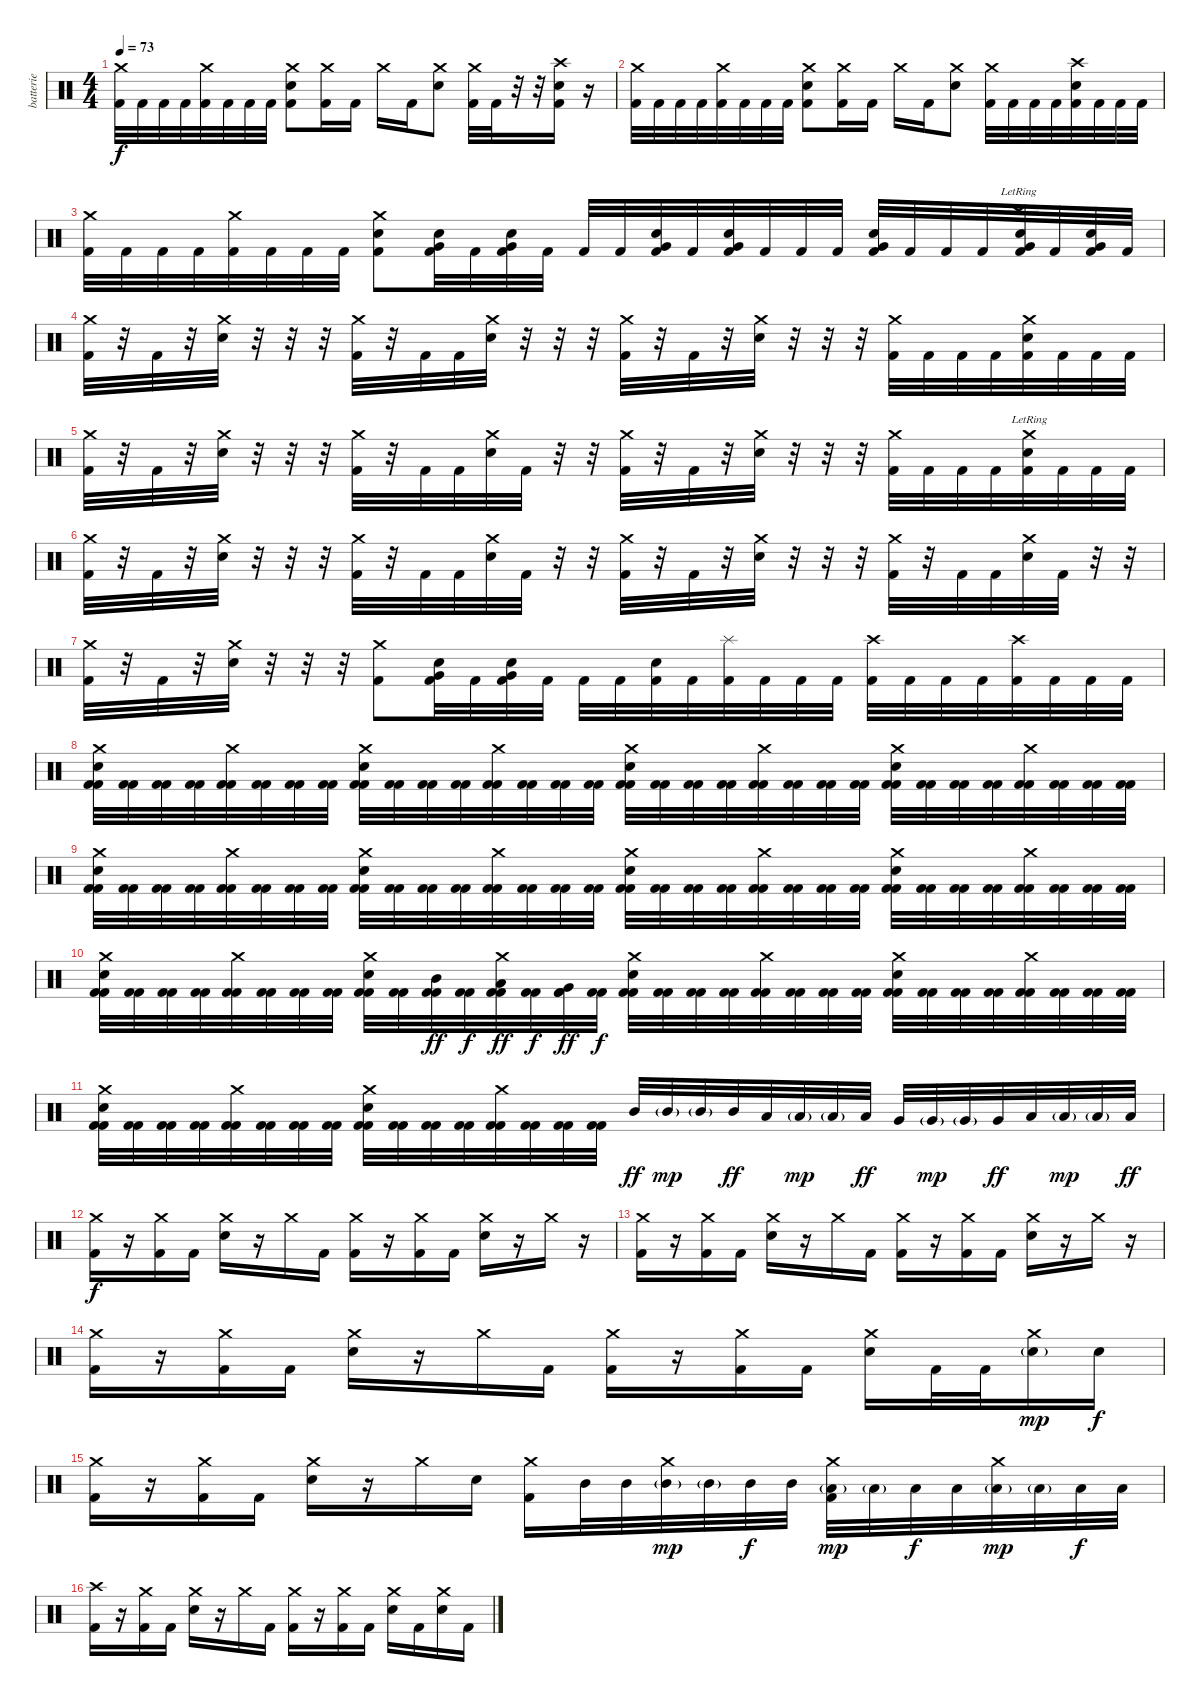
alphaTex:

\track ("batterie" "batterie") {instrument percussion}
\staff {score}
\articulation defaults
\ts (4 4)
\tempo 73
\clef neutral
\ks c
("Crash medium (hit)" "Kick (hit) 2").32{dy f} "Kick (hit) 2".32 "Kick (hit) 2".32 "Kick (hit) 2".32 ("Crash medium (hit)" "Kick (hit) 2").32 "Kick (hit) 2".32 "Kick (hit) 2".32 "Kick (hit) 2".32 ("Crash medium (hit)" "Electric Snare (hit)" "Kick (hit) 2").8 ("Crash medium (hit)" "Kick (hit) 2").16 "Kick (hit) 2".16 "Crash medium (hit)".16 "Kick (hit) 2".16 ("Crash medium (hit)" "Electric Snare (hit)").8 ("Crash medium (hit)" "Kick (hit) 2").32 "Kick (hit) 2".32 r.32 r.32 ("Crash high (hit)" "Electric Snare (hit)" "Kick (hit) 2").16 r.16 |
("Crash medium (hit)" "Kick (hit) 2").32 "Kick (hit) 2".32 "Kick (hit) 2".32 "Kick (hit) 2".32 ("Crash medium (hit)" "Kick (hit) 2").32 "Kick (hit) 2".32 "Kick (hit) 2".32 "Kick (hit) 2".32 ("Crash medium (hit)" "Electric Snare (hit)" "Kick (hit) 2").8 ("Crash medium (hit)" "Kick (hit) 2").16 "Kick (hit) 2".16 "Crash medium (hit)".16 "Kick (hit) 2".16 ("Crash medium (hit)" "Electric Snare (hit)").8 ("Crash medium (hit)" "Kick (hit) 2").32 "Kick (hit) 2".32 "Kick (hit) 2".32 "Kick (hit) 2".32 ("Crash high (hit)" "Electric Snare (hit)" "Kick (hit) 2").32 "Kick (hit) 2".32 "Kick (hit) 2".32 "Kick (hit) 2".32 |
("Crash medium (hit)" "Kick (hit) 2").32 "Kick (hit) 2".32 "Kick (hit) 2".32 "Kick (hit) 2".32 ("Crash medium (hit)" "Kick (hit) 2").32 "Kick (hit) 2".32 "Kick (hit) 2".32 "Kick (hit) 2".32 ("Crash medium (hit)" "Electric Snare (hit)" "Kick (hit) 2").8 ("Very Low Tom (hit)" "Electric Snare (hit)" "Kick (hit) 2").32 "Kick (hit) 2".32 ("Very Low Tom (hit)" "Electric Snare (hit)" "Kick (hit) 2").32 "Kick (hit) 2".32 "Kick (hit) 2".32 "Kick (hit) 2".32 ("Very Low Tom (hit)" "Electric Snare (hit)" "Kick (hit) 2").32 "Kick (hit) 2".32 ("Very Low Tom (hit)" "Electric Snare (hit)" "Kick (hit) 2").32 "Kick (hit) 2".32 "Kick (hit) 2".32 "Kick (hit) 2".32 ("Very Low Tom (hit)" "Electric Snare (hit)" "Kick (hit) 2").32 "Kick (hit) 2".32 "Kick (hit) 2".32 "Kick (hit) 2".32 ("Crash high (hit)"{lr} "Very Low Tom (hit)" "Electric Snare (hit)" "Kick (hit) 2").32 "Kick (hit) 2".32 ("Very Low Tom (hit)" "Electric Snare (hit)" "Kick (hit) 2").32 "Kick (hit) 2".32 |
("Crash medium (hit)" "Kick (hit) 2").32 r.32 "Kick (hit) 2".32 r.32 ("Crash medium (hit)" "Electric Snare (hit)").32 r.32 r.32 r.32 ("Crash medium (hit)" "Kick (hit) 2").32 r.32 "Kick (hit) 2".32 "Kick (hit) 2".32 ("Crash medium (hit)" "Electric Snare (hit)").32 r.32 r.32 r.32 ("Crash medium (hit)" "Kick (hit) 2").32 r.32 "Kick (hit) 2".32 r.32 ("Crash medium (hit)" "Electric Snare (hit)").32 r.32 r.32 r.32 ("Crash medium (hit)" "Kick (hit) 2").32 "Kick (hit) 2".32 "Kick (hit) 2".32 "Kick (hit) 2".32 ("Crash medium (hit)" "Electric Snare (hit)" "Kick (hit) 2").32 "Kick (hit) 2".32 "Kick (hit) 2".32 "Kick (hit) 2".32 |
("Crash medium (hit)" "Kick (hit) 2").32 r.32 "Kick (hit) 2".32 r.32 ("Crash medium (hit)" "Electric Snare (hit)").32 r.32 r.32 r.32 ("Crash medium (hit)" "Kick (hit) 2").32 r.32 "Kick (hit) 2".32 "Kick (hit) 2".32 ("Crash medium (hit)" "Electric Snare (hit)").32 "Kick (hit) 2".32 r.32 r.32 ("Crash medium (hit)" "Kick (hit) 2").32 r.32 "Kick (hit) 2".32 r.32 ("Crash medium (hit)" "Electric Snare (hit)").32 r.32 r.32 r.32 ("Crash medium (hit)" "Kick (hit) 2").32 "Kick (hit) 2".32 "Kick (hit) 2".32 "Kick (hit) 2".32 ("Crash medium (hit)"{lr} "Electric Snare (hit)" "Kick (hit) 2").32 "Kick (hit) 2".32 "Kick (hit) 2".32 "Kick (hit) 2".32 |
("Crash medium (hit)" "Kick (hit) 2").32 r.32 "Kick (hit) 2".32 r.32 ("Crash medium (hit)" "Electric Snare (hit)").32 r.32 r.32 r.32 ("Crash medium (hit)" "Kick (hit) 2").32 r.32 "Kick (hit) 2".32 "Kick (hit) 2".32 ("Crash medium (hit)" "Electric Snare (hit)").32 "Kick (hit) 2".32 r.32 r.32 ("Crash medium (hit)" "Kick (hit) 2").32 r.32 "Kick (hit) 2".32 r.32 ("Crash medium (hit)" "Electric Snare (hit)").32 r.32 r.32 r.32 ("Crash medium (hit)" "Kick (hit) 2").32 r.32 "Kick (hit) 2".32 "Kick (hit) 2".32 ("Crash medium (hit)" "Electric Snare (hit)").32 "Kick (hit) 2".32 r.32 r.32 |
("Crash medium (hit)" "Kick (hit) 2").32 r.32 "Kick (hit) 2".32 r.32 ("Crash medium (hit)" "Electric Snare (hit)").32 r.32 r.32 r.32 ("Crash medium (hit)" "Kick (hit) 2").8 ("Very Low Tom (hit)" "Electric Snare (hit)" "Kick (hit) 2").32 "Kick (hit) 2".32 ("Very Low Tom (hit)" "Electric Snare (hit)" "Kick (hit) 2").32 "Kick (hit) 2".32 "Kick (hit) 2".32 "Kick (hit) 2".32 ("Electric Snare (hit)" "Kick (hit) 2").32 "Kick (hit) 2".32 ("Splash (hit)" "Kick (hit) 2").32 "Kick (hit) 2".32 "Kick (hit) 2".32 "Kick (hit) 2".32 ("Crash high (hit)" "Kick (hit) 2").32 "Kick (hit) 2".32 "Kick (hit) 2".32 "Kick (hit) 2".32 ("Crash high (hit)" "Kick (hit) 2").32 "Kick (hit) 2".32 "Kick (hit) 2".32 "Kick (hit) 2".32 |
("Crash medium (hit)" "Electric Snare (hit)" "Kick (hit) 2" "Kick (hit) 2").32 ("Kick (hit) 2" "Kick (hit) 2").32 ("Kick (hit) 2" "Kick (hit) 2").32 ("Kick (hit) 2" "Kick (hit) 2").32 ("Crash medium (hit)" "Kick (hit) 2" "Kick (hit) 2").32 ("Kick (hit) 2" "Kick (hit) 2").32 ("Kick (hit) 2" "Kick (hit) 2").32 ("Kick (hit) 2" "Kick (hit) 2").32 ("Crash medium (hit)" "Electric Snare (hit)" "Kick (hit) 2" "Kick (hit) 2").32 ("Kick (hit) 2" "Kick (hit) 2").32 ("Kick (hit) 2" "Kick (hit) 2").32 ("Kick (hit) 2" "Kick (hit) 2").32 ("Crash medium (hit)" "Kick (hit) 2" "Kick (hit) 2").32 ("Kick (hit) 2" "Kick (hit) 2").32 ("Kick (hit) 2" "Kick (hit) 2").32 ("Kick (hit) 2" "Kick (hit) 2").32 ("Crash medium (hit)" "Electric Snare (hit)" "Kick (hit) 2" "Kick (hit) 2").32 ("Kick (hit) 2" "Kick (hit) 2").32 ("Kick (hit) 2" "Kick (hit) 2").32 ("Kick (hit) 2" "Kick (hit) 2").32 ("Crash medium (hit)" "Kick (hit) 2" "Kick (hit) 2").32 ("Kick (hit) 2" "Kick (hit) 2").32 ("Kick (hit) 2" "Kick (hit) 2").32 ("Kick (hit) 2" "Kick (hit) 2").32 ("Crash medium (hit)" "Electric Snare (hit)" "Kick (hit) 2" "Kick (hit) 2").32 ("Kick (hit) 2" "Kick (hit) 2").32 ("Kick (hit) 2" "Kick (hit) 2").32 ("Kick (hit) 2" "Kick (hit) 2").32 ("Crash medium (hit)" "Kick (hit) 2" "Kick (hit) 2").32 ("Kick (hit) 2" "Kick (hit) 2").32 ("Kick (hit) 2" "Kick (hit) 2").32 ("Kick (hit) 2" "Kick (hit) 2").32 |
("Crash medium (hit)" "Electric Snare (hit)" "Kick (hit) 2" "Kick (hit) 2").32 ("Kick (hit) 2" "Kick (hit) 2").32 ("Kick (hit) 2" "Kick (hit) 2").32 ("Kick (hit) 2" "Kick (hit) 2").32 ("Crash medium (hit)" "Kick (hit) 2" "Kick (hit) 2").32 ("Kick (hit) 2" "Kick (hit) 2").32 ("Kick (hit) 2" "Kick (hit) 2").32 ("Kick (hit) 2" "Kick (hit) 2").32 ("Crash medium (hit)" "Electric Snare (hit)" "Kick (hit) 2" "Kick (hit) 2").32 ("Kick (hit) 2" "Kick (hit) 2").32 ("Kick (hit) 2" "Kick (hit) 2").32 ("Kick (hit) 2" "Kick (hit) 2").32 ("Crash medium (hit)" "Kick (hit) 2" "Kick (hit) 2").32 ("Kick (hit) 2" "Kick (hit) 2").32 ("Kick (hit) 2" "Kick (hit) 2").32 ("Kick (hit) 2" "Kick (hit) 2").32 ("Crash medium (hit)" "Electric Snare (hit)" "Kick (hit) 2" "Kick (hit) 2").32 ("Kick (hit) 2" "Kick (hit) 2").32 ("Kick (hit) 2" "Kick (hit) 2").32 ("Kick (hit) 2" "Kick (hit) 2").32 ("Crash medium (hit)" "Kick (hit) 2" "Kick (hit) 2").32 ("Kick (hit) 2" "Kick (hit) 2").32 ("Kick (hit) 2" "Kick (hit) 2").32 ("Kick (hit) 2" "Kick (hit) 2").32 ("Crash medium (hit)" "Electric Snare (hit)" "Kick (hit) 2" "Kick (hit) 2").32 ("Kick (hit) 2" "Kick (hit) 2").32 ("Kick (hit) 2" "Kick (hit) 2").32 ("Kick (hit) 2" "Kick (hit) 2").32 ("Crash medium (hit)" "Kick (hit) 2" "Kick (hit) 2").32 ("Kick (hit) 2" "Kick (hit) 2").32 ("Kick (hit) 2" "Kick (hit) 2").32 ("Kick (hit) 2" "Kick (hit) 2").32 |
("Crash medium (hit)" "Electric Snare (hit)" "Kick (hit) 2" "Kick (hit) 2").32 ("Kick (hit) 2" "Kick (hit) 2").32 ("Kick (hit) 2" "Kick (hit) 2").32 ("Kick (hit) 2" "Kick (hit) 2").32 ("Crash medium (hit)" "Kick (hit) 2" "Kick (hit) 2").32 ("Kick (hit) 2" "Kick (hit) 2").32 ("Kick (hit) 2" "Kick (hit) 2").32 ("Kick (hit) 2" "Kick (hit) 2").32 ("Crash medium (hit)" "Electric Snare (hit)" "Kick (hit) 2" "Kick (hit) 2").32 ("Kick (hit) 2" "Kick (hit) 2").32 ("Mid Tom (hit)" "Kick (hit) 2" "Kick (hit) 2").32{dy ff} ("Kick (hit) 2" "Kick (hit) 2").32{dy f} ("Crash medium (hit)" "Low Tom (hit)" "Kick (hit) 2" "Kick (hit) 2").32{dy ff} ("Kick (hit) 2" "Kick (hit) 2").32{dy f} ("Very Low Tom (hit)" "Kick (hit) 2" "Kick (hit) 2").32{dy ff} ("Kick (hit) 2" "Kick (hit) 2").32{dy f} ("Crash medium (hit)" "Electric Snare (hit)" "Kick (hit) 2" "Kick (hit) 2").32 ("Kick (hit) 2" "Kick (hit) 2").32 ("Kick (hit) 2" "Kick (hit) 2").32 ("Kick (hit) 2" "Kick (hit) 2").32 ("Crash medium (hit)" "Kick (hit) 2" "Kick (hit) 2").32 ("Kick (hit) 2" "Kick (hit) 2").32 ("Kick (hit) 2" "Kick (hit) 2").32 ("Kick (hit) 2" "Kick (hit) 2").32 ("Crash medium (hit)" "Electric Snare (hit)" "Kick (hit) 2" "Kick (hit) 2").32 ("Kick (hit) 2" "Kick (hit) 2").32 ("Kick (hit) 2" "Kick (hit) 2").32 ("Kick (hit) 2" "Kick (hit) 2").32 ("Crash medium (hit)" "Kick (hit) 2" "Kick (hit) 2").32 ("Kick (hit) 2" "Kick (hit) 2").32 ("Kick (hit) 2" "Kick (hit) 2").32 ("Kick (hit) 2" "Kick (hit) 2").32 |
("Crash medium (hit)" "Electric Snare (hit)" "Kick (hit) 2" "Kick (hit) 2").32 ("Kick (hit) 2" "Kick (hit) 2").32 ("Kick (hit) 2" "Kick (hit) 2").32 ("Kick (hit) 2" "Kick (hit) 2").32 ("Crash medium (hit)" "Kick (hit) 2" "Kick (hit) 2").32 ("Kick (hit) 2" "Kick (hit) 2").32 ("Kick (hit) 2" "Kick (hit) 2").32 ("Kick (hit) 2" "Kick (hit) 2").32 ("Crash medium (hit)" "Electric Snare (hit)" "Kick (hit) 2" "Kick (hit) 2").32 ("Kick (hit) 2" "Kick (hit) 2").32 ("Kick (hit) 2" "Kick (hit) 2").32 ("Kick (hit) 2" "Kick (hit) 2").32 ("Crash medium (hit)" "Kick (hit) 2" "Kick (hit) 2").32 ("Kick (hit) 2" "Kick (hit) 2").32 ("Kick (hit) 2" "Kick (hit) 2").32 ("Kick (hit) 2" "Kick (hit) 2").32 "Mid Tom (hit)".32{dy ff} "Mid Tom (hit)"{g}.32{dy mp} "Mid Tom (hit)"{g}.32 "Mid Tom (hit)".32{dy ff} "Low Tom (hit)".32 "Low Tom (hit)"{g}.32{dy mp} "Low Tom (hit)"{g}.32 "Low Tom (hit)".32{dy ff} "Very Low Tom (hit)".32 "Very Low Tom (hit)"{g}.32{dy mp} "Very Low Tom (hit)"{g}.32 "Very Low Tom (hit)".32{dy ff} "Low Floor Tom (hit)".32 "Low Floor Tom (hit)"{g}.32{dy mp} "Low Floor Tom (hit)"{g}.32 "Low Floor Tom (hit)".32{dy ff} |
("Crash medium (hit)" "Kick (hit) 2").16{dy f} r.16 ("Crash medium (hit)" "Kick (hit) 2").16 "Kick (hit) 2".16 ("Crash medium (hit)" "Electric Snare (hit)").16 r.16 "Crash medium (hit)".16 "Kick (hit) 2".16 ("Crash medium (hit)" "Kick (hit) 2").16 r.16 ("Crash medium (hit)" "Kick (hit) 2").16 "Kick (hit) 2".16 ("Crash medium (hit)" "Electric Snare (hit)").16 r.16 "Crash medium (hit)".16 r.16 |
("Crash medium (hit)" "Kick (hit) 2").16 r.16 ("Crash medium (hit)" "Kick (hit) 2").16 "Kick (hit) 2".16 ("Crash medium (hit)" "Electric Snare (hit)").16 r.16 "Crash medium (hit)".16 "Kick (hit) 2".16 ("Crash medium (hit)" "Kick (hit) 2").16 r.16 ("Crash medium (hit)" "Kick (hit) 2").16 "Kick (hit) 2".16 ("Crash medium (hit)" "Electric Snare (hit)").16 r.16 "Crash medium (hit)".16 r.16 |
("Crash medium (hit)" "Kick (hit) 2").16 r.16 ("Crash medium (hit)" "Kick (hit) 2").16 "Kick (hit) 2".16 ("Crash medium (hit)" "Electric Snare (hit)").16 r.16 "Crash medium (hit)".16 "Kick (hit) 2".16 ("Crash medium (hit)" "Kick (hit) 2").16 r.16 ("Crash medium (hit)" "Kick (hit) 2").16 "Kick (hit) 2".16 ("Crash medium (hit)" "Electric Snare (hit)").16 "Kick (hit) 2".32 "Kick (hit) 2".32 ("Crash medium (hit)" "Electric Snare (hit)"{g}).16{dy mp} "Electric Snare (hit)".16{dy f} |
("Crash medium (hit)" "Kick (hit) 2").16 r.16 ("Crash medium (hit)" "Kick (hit) 2").16 "Kick (hit) 2".16 ("Crash medium (hit)" "Electric Snare (hit)").16 r.16 "Crash medium (hit)".16 "Electric Snare (hit)".16 ("Crash medium (hit)" "Kick (hit) 2").16 "Mid Tom (hit)".32 "Mid Tom (hit)".32 ("Crash medium (hit)" "Mid Tom (hit)"{g}).32{dy mp} "Mid Tom (hit)"{g}.32 "Mid Tom (hit)".32{dy f} "Mid Tom (hit)".32 ("Crash medium (hit)" "Low Tom (hit)"{g} "Kick (hit) 2").32{dy mp} "Low Tom (hit)"{g}.32 "Low Tom (hit)".32{dy f} "Low Tom (hit)".32 ("Crash medium (hit)" "Low Tom (hit)"{g}).32{dy mp} "Low Tom (hit)"{g}.32 "Low Tom (hit)".32{dy f} "Low Tom (hit)".32 |
("Crash high (hit)" "Kick (hit) 2").16{volume 11} r.16 ("Crash medium (hit)" "Kick (hit) 2").16 "Kick (hit) 2".16 ("Crash medium (hit)" "Electric Snare (hit)").16 r.16 "Crash medium (hit)".16 "Kick (hit) 2".16 ("Crash medium (hit)" "Kick (hit) 2").16 r.16 ("Crash medium (hit)" "Kick (hit) 2").16 "Kick (hit) 2".16 ("Crash medium (hit)" "Snare (hit) 2").16 "Kick (hit) 2".16 ("Crash medium (hit)" "Snare (hit) 2").16 "Kick (hit) 2".16
